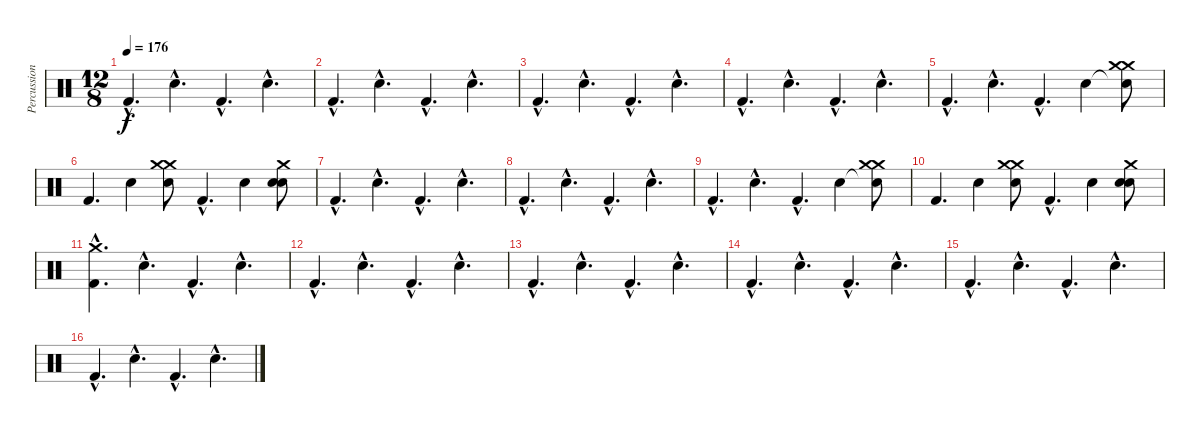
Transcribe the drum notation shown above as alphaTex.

\track ("Percussion" "Percussion") {instrument percussion}
\staff {score}
\articulation defaults
\ts (12 8)
\tempo 176
\clef neutral
\ks c "Kick (hit) 2"{hac}.4{d dy f} "Snare (hit) 2"{hac}.4{d} "Kick (hit) 2"{hac}.4{d} "Snare (hit) 2"{hac}.4{d}
|
"Kick (hit) 2"{hac}.4{d} "Snare (hit) 2"{hac}.4{d} "Kick (hit) 2"{hac}.4{d} "Snare (hit) 2"{hac}.4{d} |
"Kick (hit) 2"{hac}.4{d} "Snare (hit) 2"{hac}.4{d} "Kick (hit) 2"{hac}.4{d} "Snare (hit) 2"{hac}.4{d} |
"Kick (hit) 2"{hac}.4{d} "Snare (hit) 2"{hac}.4{d} "Kick (hit) 2"{hac}.4{d} "Snare (hit) 2"{hac}.4{d} |
"Kick (hit) 2"{hac}.4{d} "Snare (hit) 2"{hac}.4{d} "Kick (hit) 2"{hac}.4{d} "Snare (hit) 2".4 ("Snare (hit)"{t} "Crash medium (hit)" "Crash medium (hit)").8 |
"Kick (hit) 2".4{d} "Snare (hit) 2".4 ("Crash medium (hit)" "Crash medium (hit)" "Snare (hit)").8 "Kick (hit) 2"{hac}.4{d} "Snare (hit) 2".4 ("Crash medium (hit)" "Snare (hit)" "Snare (hit)").8 |
"Kick (hit) 2"{hac}.4{d} "Snare (hit) 2"{hac}.4{d} "Kick (hit) 2"{hac}.4{d} "Snare (hit) 2"{hac}.4{d} |
"Kick (hit) 2"{hac}.4{d} "Snare (hit) 2"{hac}.4{d} "Kick (hit) 2"{hac}.4{d} "Snare (hit) 2"{hac}.4{d} |
"Kick (hit) 2"{hac}.4{d} "Snare (hit) 2"{hac}.4{d} "Kick (hit) 2"{hac}.4{d} "Snare (hit) 2".4 ("Snare (hit)"{t} "Crash medium (hit)" "Crash medium (hit)").8 |
"Kick (hit) 2".4{d} "Snare (hit) 2".4 ("Crash medium (hit)" "Crash medium (hit)" "Snare (hit)").8 "Kick (hit) 2"{hac}.4{d} "Snare (hit) 2".4 ("Crash medium (hit)" "Snare (hit)" "Snare (hit)").8 |
("Kick (hit) 2"{hac} "Crash medium (hit)"{hac}).4{d} "Snare (hit) 2"{hac}.4{d} "Kick (hit) 2"{hac}.4{d} "Snare (hit) 2"{hac}.4{d} |
"Kick (hit) 2"{hac}.4{d} "Snare (hit) 2"{hac}.4{d} "Kick (hit) 2"{hac}.4{d} "Snare (hit) 2"{hac}.4{d} |
"Kick (hit) 2"{hac}.4{d} "Snare (hit) 2"{hac}.4{d} "Kick (hit) 2"{hac}.4{d} "Snare (hit) 2"{hac}.4{d} |
"Kick (hit) 2"{hac}.4{d} "Snare (hit) 2"{hac}.4{d} "Kick (hit) 2"{hac}.4{d} "Snare (hit) 2"{hac}.4{d} |
"Kick (hit) 2"{hac}.4{d} "Snare (hit) 2"{hac}.4{d} "Kick (hit) 2"{hac}.4{d} "Snare (hit) 2"{hac}.4{d} |
"Kick (hit) 2"{hac}.4{d} "Snare (hit) 2"{hac}.4{d} "Kick (hit) 2"{hac}.4{d} "Snare (hit) 2"{hac}.4{d}
